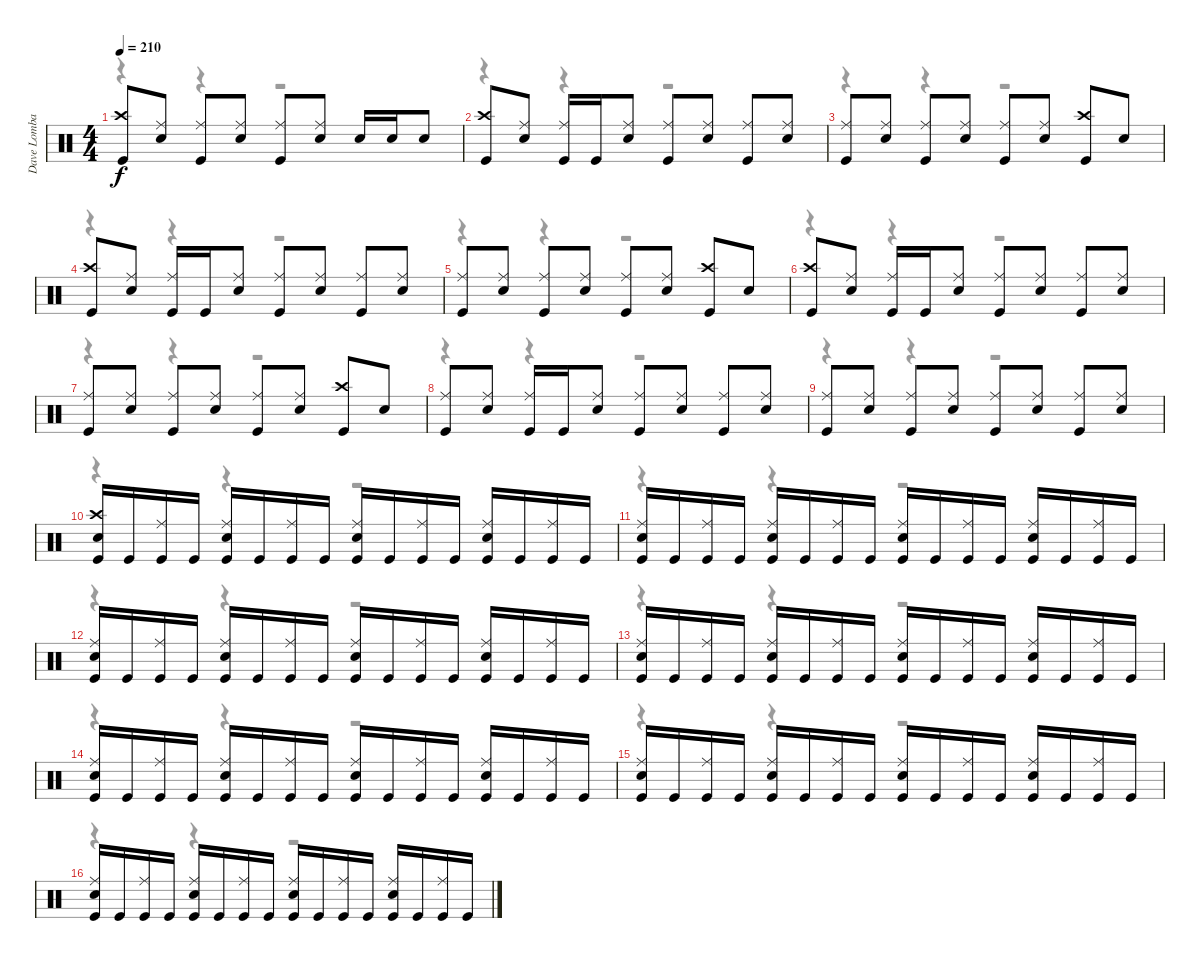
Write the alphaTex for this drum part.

\track ("Dave Lombardo" "Dave Lomba") {instrument percussion}
\staff {score}
\articulation defaults
\voice
\ts (4 4)
\tempo 210
\clef neutral
\ks c
("Crash high (hit)" "Kick (hit)").8{dy f} ("Ride (middle)" "Snare (hit) 2").8 ("Ride (middle)" "Kick (hit)").8 ("Ride (middle)" "Snare (hit) 2").8 ("Ride (middle)" "Kick (hit)").8 ("Ride (middle)" "Snare (hit) 2").8 "Snare (hit) 2".16 "Snare (hit) 2".16 "Snare (hit) 2".8 |
("Crash high (hit)" "Kick (hit)").8 ("Ride (middle)" "Snare (hit) 2").8 ("Ride (middle)" "Kick (hit)").16 "Kick (hit)".16 ("Ride (middle)" "Snare (hit) 2").8 ("Ride (middle)" "Kick (hit)").8 ("Ride (middle)" "Snare (hit) 2").8 ("Ride (middle)" "Kick (hit)").8 ("Ride (middle)" "Snare (hit) 2").8 |
("Ride (middle)" "Kick (hit)").8 ("Ride (middle)" "Snare (hit) 2").8 ("Ride (middle)" "Kick (hit)").8 ("Ride (middle)" "Snare (hit) 2").8 ("Ride (middle)" "Kick (hit)").8 ("Ride (middle)" "Snare (hit) 2").8 ("Crash high (hit)" "Kick (hit)").8 "Snare (hit) 2".8 |
("Crash high (hit)" "Kick (hit)").8 ("Ride (middle)" "Snare (hit) 2").8 ("Ride (middle)" "Kick (hit)").16 "Kick (hit)".16 ("Ride (middle)" "Snare (hit) 2").8 ("Ride (middle)" "Kick (hit)").8 ("Ride (middle)" "Snare (hit) 2").8 ("Ride (middle)" "Kick (hit)").8 ("Ride (middle)" "Snare (hit) 2").8 |
("Ride (middle)" "Kick (hit)").8 ("Ride (middle)" "Snare (hit) 2").8 ("Ride (middle)" "Kick (hit)").8 ("Ride (middle)" "Snare (hit) 2").8 ("Ride (middle)" "Kick (hit)").8 ("Ride (middle)" "Snare (hit) 2").8 ("Crash high (hit)" "Kick (hit)").8 "Snare (hit) 2".8 |
("Crash high (hit)" "Kick (hit)").8 ("Ride (middle)" "Snare (hit) 2").8 ("Ride (middle)" "Kick (hit)").16 "Kick (hit)".16 ("Ride (middle)" "Snare (hit) 2").8 ("Ride (middle)" "Kick (hit)").8 ("Ride (middle)" "Snare (hit) 2").8 ("Ride (middle)" "Kick (hit)").8 ("Ride (middle)" "Snare (hit) 2").8 |
("Ride (middle)" "Kick (hit)").8 ("Ride (middle)" "Snare (hit) 2").8 ("Ride (middle)" "Kick (hit)").8 ("Ride (middle)" "Snare (hit) 2").8 ("Ride (middle)" "Kick (hit)").8 ("Ride (middle)" "Snare (hit) 2").8 ("Crash high (hit)" "Kick (hit)").8 "Snare (hit) 2".8 |
("Ride (middle)" "Kick (hit)").8 ("Ride (middle)" "Snare (hit) 2").8 ("Ride (middle)" "Kick (hit)").16 "Kick (hit)".16 ("Ride (middle)" "Snare (hit) 2").8 ("Ride (middle)" "Kick (hit)").8 ("Ride (middle)" "Snare (hit) 2").8 ("Ride (middle)" "Kick (hit)").8 ("Ride (middle)" "Snare (hit) 2").8 |
("Ride (middle)" "Kick (hit)").8 ("Ride (middle)" "Snare (hit) 2").8 ("Ride (middle)" "Kick (hit)").8 ("Ride (middle)" "Snare (hit) 2").8 ("Ride (middle)" "Kick (hit)").8 ("Ride (middle)" "Snare (hit) 2").8 ("Ride (middle)" "Kick (hit)").8 ("Ride (middle)" "Snare (hit) 2").8 |
("Crash high (hit)" "Snare (hit) 2" "Kick (hit)").16 "Kick (hit)".16 ("Ride (middle)" "Kick (hit)").16 "Kick (hit)".16 ("Ride (middle)" "Snare (hit) 2" "Kick (hit)").16 "Kick (hit)".16 ("Ride (middle)" "Kick (hit)").16 "Kick (hit)".16 ("Ride (middle)" "Snare (hit) 2" "Kick (hit)").16 "Kick (hit)".16 ("Ride (middle)" "Kick (hit)").16 "Kick (hit)".16 ("Ride (middle)" "Snare (hit) 2" "Kick (hit)").16 "Kick (hit)".16 ("Ride (middle)" "Kick (hit)").16 "Kick (hit)".16 |
("Ride (middle)" "Snare (hit) 2" "Kick (hit)").16 "Kick (hit)".16 ("Ride (middle)" "Kick (hit)").16 "Kick (hit)".16 ("Ride (middle)" "Snare (hit) 2" "Kick (hit)").16 "Kick (hit)".16 ("Ride (middle)" "Kick (hit)").16 "Kick (hit)".16 ("Ride (middle)" "Snare (hit) 2" "Kick (hit)").16 "Kick (hit)".16 ("Ride (middle)" "Kick (hit)").16 "Kick (hit)".16 ("Ride (middle)" "Snare (hit) 2" "Kick (hit)").16 "Kick (hit)".16 ("Ride (middle)" "Kick (hit)").16 "Kick (hit)".16 |
("Ride (middle)" "Snare (hit) 2" "Kick (hit)").16 "Kick (hit)".16 ("Ride (middle)" "Kick (hit)").16 "Kick (hit)".16 ("Ride (middle)" "Snare (hit) 2" "Kick (hit)").16 "Kick (hit)".16 ("Ride (middle)" "Kick (hit)").16 "Kick (hit)".16 ("Ride (middle)" "Snare (hit) 2" "Kick (hit)").16 "Kick (hit)".16 ("Ride (middle)" "Kick (hit)").16 "Kick (hit)".16 ("Ride (middle)" "Snare (hit) 2" "Kick (hit)").16 "Kick (hit)".16 ("Ride (middle)" "Kick (hit)").16 "Kick (hit)".16 |
("Ride (middle)" "Snare (hit) 2" "Kick (hit)").16 "Kick (hit)".16 ("Ride (middle)" "Kick (hit)").16 "Kick (hit)".16 ("Ride (middle)" "Snare (hit) 2" "Kick (hit)").16 "Kick (hit)".16 ("Ride (middle)" "Kick (hit)").16 "Kick (hit)".16 ("Ride (middle)" "Snare (hit) 2" "Kick (hit)").16 "Kick (hit)".16 ("Ride (middle)" "Kick (hit)").16 "Kick (hit)".16 ("Ride (middle)" "Snare (hit) 2" "Kick (hit)").16 "Kick (hit)".16 ("Ride (middle)" "Kick (hit)").16 "Kick (hit)".16 |
("Ride (middle)" "Snare (hit) 2" "Kick (hit)").16 "Kick (hit)".16 ("Ride (middle)" "Kick (hit)").16 "Kick (hit)".16 ("Ride (middle)" "Snare (hit) 2" "Kick (hit)").16 "Kick (hit)".16 ("Ride (middle)" "Kick (hit)").16 "Kick (hit)".16 ("Ride (middle)" "Snare (hit) 2" "Kick (hit)").16 "Kick (hit)".16 ("Ride (middle)" "Kick (hit)").16 "Kick (hit)".16 ("Ride (middle)" "Snare (hit) 2" "Kick (hit)").16 "Kick (hit)".16 ("Ride (middle)" "Kick (hit)").16 "Kick (hit)".16 |
("Ride (middle)" "Snare (hit) 2" "Kick (hit)").16 "Kick (hit)".16 ("Ride (middle)" "Kick (hit)").16 "Kick (hit)".16 ("Ride (middle)" "Snare (hit) 2" "Kick (hit)").16 "Kick (hit)".16 ("Ride (middle)" "Kick (hit)").16 "Kick (hit)".16 ("Ride (middle)" "Snare (hit) 2" "Kick (hit)").16 "Kick (hit)".16 ("Ride (middle)" "Kick (hit)").16 "Kick (hit)".16 ("Ride (middle)" "Snare (hit) 2" "Kick (hit)").16 "Kick (hit)".16 ("Ride (middle)" "Kick (hit)").16 "Kick (hit)".16 |
("Ride (middle)" "Snare (hit) 2" "Kick (hit)").16 "Kick (hit)".16 ("Ride (middle)" "Kick (hit)").16 "Kick (hit)".16 ("Ride (middle)" "Snare (hit) 2" "Kick (hit)").16 "Kick (hit)".16 ("Ride (middle)" "Kick (hit)").16 "Kick (hit)".16 ("Ride (middle)" "Snare (hit) 2" "Kick (hit)").16 "Kick (hit)".16 ("Ride (middle)" "Kick (hit)").16 "Kick (hit)".16 ("Ride (middle)" "Snare (hit) 2" "Kick (hit)").16 "Kick (hit)".16 ("Ride (middle)" "Kick (hit)").16 "Kick (hit)".16
\voice
\clef neutral
\ottava regular
\simile none
\ks c
r.4{dy f} r.4 r.2 |
r.4 r.4 r.2 |
r.4 r.4 r.2 |
r.4 r.4 r.2 |
r.4 r.4 r.2 |
r.4 r.4 r.2 |
r.4 r.4 r.2 |
r.4 r.4 r.2 |
r.4 r.4 r.2 |
r.4 r.4 r.2 |
r.4 r.4 r.2 |
r.4 r.4 r.2 |
r.4 r.4 r.2 |
r.4 r.4 r.2 |
r.4 r.4 r.2 |
r.4 r.4 r.2
